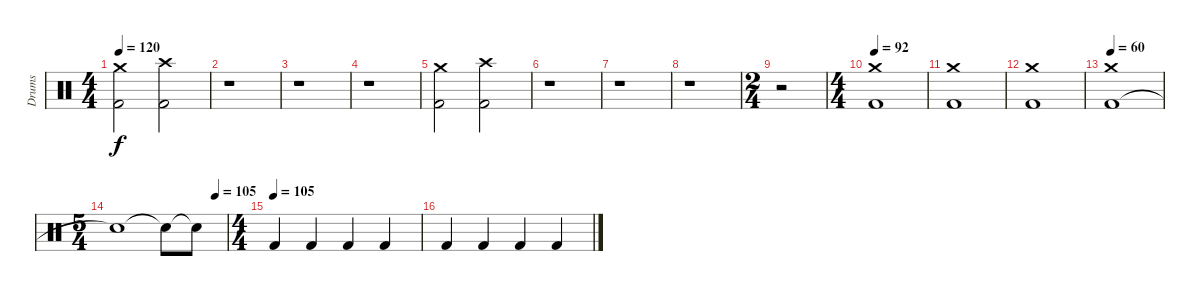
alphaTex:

\track ("Drums" "Drums") {instrument percussion}
\staff {score}
\articulation defaults
\ts (4 4)
\tempo 120
\clef neutral
\ks c
("Kick (hit) 2" "Crash medium (hit)").2{dy f} ("Kick (hit) 2" "Crash high (hit)").2 |
r.1 |
r.1 |
r.1 |
("Kick (hit) 2" "Crash medium (hit)").2 ("Kick (hit) 2" "Crash high (hit)").2 |
r.1 |
r.1 |
r.1 |
\ts (2 4)
r.2 |
\ts (4 4)
\tempo 92
("Kick (hit) 2" "Crash medium (hit)").1 |
("Kick (hit) 2" "Crash medium (hit)").1 |
("Kick (hit) 2" "Crash medium (hit)").1 |
\tempo 60
("Kick (hit) 2" "Crash medium (hit)").1 |
\ts (5 4)
\tempo (105 0.9)
"Snare (hit)"{t}.1 "Snare (hit)"{t}.8 "Snare (hit)"{t}.8 |
\ts (4 4)
\tempo (105)
"Kick (hit) 2".4 "Kick (hit) 2".4 "Kick (hit) 2".4 "Kick (hit) 2".4 |
"Kick (hit) 2".4 "Kick (hit) 2".4 "Kick (hit) 2".4 "Kick (hit) 2".4
